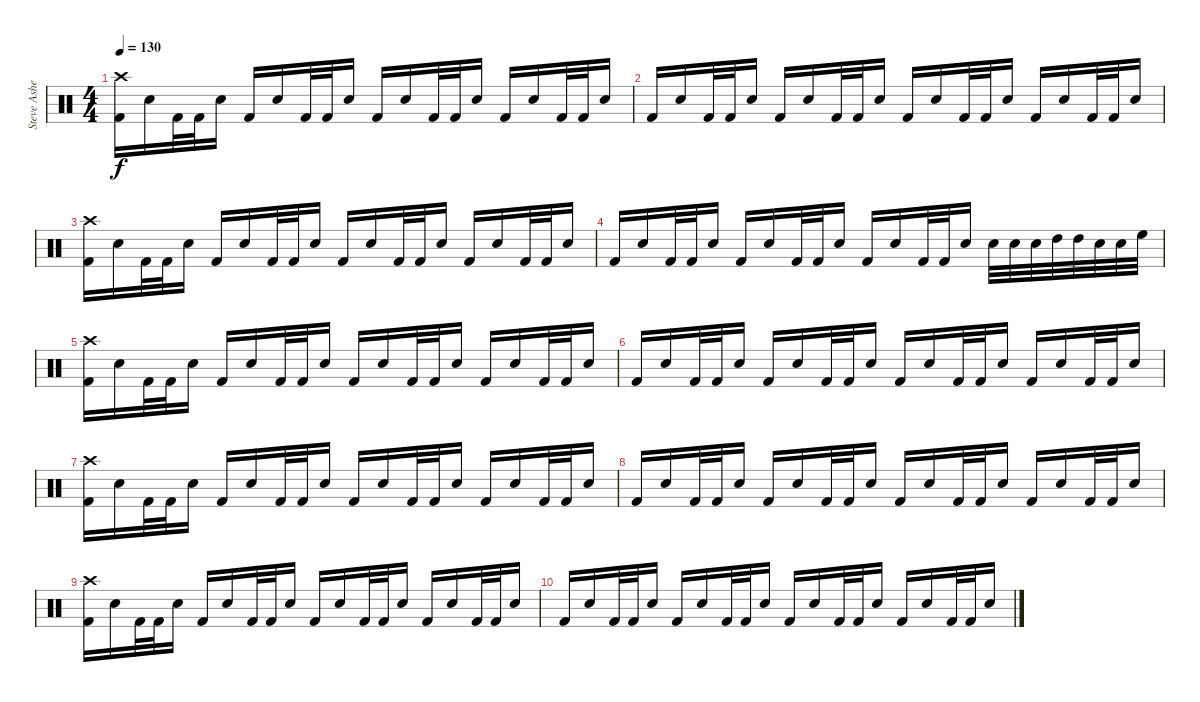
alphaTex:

\track ("Steve Asheim" "Steve Ashe") {instrument percussion}
\staff {score}
\articulation defaults
\ts (4 4)
\tempo 130
\clef neutral
\ks c
("Crash high (hit)" "Kick (hit) 2").16{dy f} "Electric Snare (hit)".16 "Kick (hit) 2".32 "Kick (hit) 2".32 "Electric Snare (hit)".16 "Kick (hit) 2".16 "Electric Snare (hit)".16 "Kick (hit) 2".32 "Kick (hit) 2".32 "Electric Snare (hit)".16 "Kick (hit) 2".16 "Electric Snare (hit)".16 "Kick (hit) 2".32 "Kick (hit) 2".32 "Electric Snare (hit)".16 "Kick (hit) 2".16 "Electric Snare (hit)".16 "Kick (hit) 2".32 "Kick (hit) 2".32 "Electric Snare (hit)".16 |
"Kick (hit) 2".16 "Electric Snare (hit)".16 "Kick (hit) 2".32 "Kick (hit) 2".32 "Electric Snare (hit)".16 "Kick (hit) 2".16 "Electric Snare (hit)".16 "Kick (hit) 2".32 "Kick (hit) 2".32 "Electric Snare (hit)".16 "Kick (hit) 2".16 "Electric Snare (hit)".16 "Kick (hit) 2".32 "Kick (hit) 2".32 "Electric Snare (hit)".16 "Kick (hit) 2".16 "Electric Snare (hit)".16 "Kick (hit) 2".32 "Kick (hit) 2".32 "Electric Snare (hit)".16 |
("Crash high (hit)" "Kick (hit) 2").16 "Electric Snare (hit)".16 "Kick (hit) 2".32 "Kick (hit) 2".32 "Electric Snare (hit)".16 "Kick (hit) 2".16 "Electric Snare (hit)".16 "Kick (hit) 2".32 "Kick (hit) 2".32 "Electric Snare (hit)".16 "Kick (hit) 2".16 "Electric Snare (hit)".16 "Kick (hit) 2".32 "Kick (hit) 2".32 "Electric Snare (hit)".16 "Kick (hit) 2".16 "Electric Snare (hit)".16 "Kick (hit) 2".32 "Kick (hit) 2".32 "Electric Snare (hit)".16 |
"Kick (hit) 2".16 "Electric Snare (hit)".16 "Kick (hit) 2".32 "Kick (hit) 2".32 "Electric Snare (hit)".16 "Kick (hit) 2".16 "Electric Snare (hit)".16 "Kick (hit) 2".32 "Kick (hit) 2".32 "Electric Snare (hit)".16 "Kick (hit) 2".16 "Electric Snare (hit)".16 "Kick (hit) 2".32 "Kick (hit) 2".32 "Electric Snare (hit)".16 "Electric Snare (hit)".32 "Electric Snare (hit)".32 "Electric Snare (hit)".32 "High Tom (hit)".32 "High Tom (hit)".32 "Electric Snare (hit)".32 "Electric Snare (hit)".32 "High Floor Tom (hit)".32 |
("Crash high (hit)" "Kick (hit) 2").16 "Electric Snare (hit)".16 "Kick (hit) 2".32 "Kick (hit) 2".32 "Electric Snare (hit)".16 "Kick (hit) 2".16 "Electric Snare (hit)".16 "Kick (hit) 2".32 "Kick (hit) 2".32 "Electric Snare (hit)".16 "Kick (hit) 2".16 "Electric Snare (hit)".16 "Kick (hit) 2".32 "Kick (hit) 2".32 "Electric Snare (hit)".16 "Kick (hit) 2".16 "Electric Snare (hit)".16 "Kick (hit) 2".32 "Kick (hit) 2".32 "Electric Snare (hit)".16 |
"Kick (hit) 2".16 "Electric Snare (hit)".16 "Kick (hit) 2".32 "Kick (hit) 2".32 "Electric Snare (hit)".16 "Kick (hit) 2".16 "Electric Snare (hit)".16 "Kick (hit) 2".32 "Kick (hit) 2".32 "Electric Snare (hit)".16 "Kick (hit) 2".16 "Electric Snare (hit)".16 "Kick (hit) 2".32 "Kick (hit) 2".32 "Electric Snare (hit)".16 "Kick (hit) 2".16 "Electric Snare (hit)".16 "Kick (hit) 2".32 "Kick (hit) 2".32 "Electric Snare (hit)".16 |
("Crash high (hit)" "Kick (hit) 2").16 "Electric Snare (hit)".16 "Kick (hit) 2".32 "Kick (hit) 2".32 "Electric Snare (hit)".16 "Kick (hit) 2".16 "Electric Snare (hit)".16 "Kick (hit) 2".32 "Kick (hit) 2".32 "Electric Snare (hit)".16 "Kick (hit) 2".16 "Electric Snare (hit)".16 "Kick (hit) 2".32 "Kick (hit) 2".32 "Electric Snare (hit)".16 "Kick (hit) 2".16 "Electric Snare (hit)".16 "Kick (hit) 2".32 "Kick (hit) 2".32 "Electric Snare (hit)".16 |
"Kick (hit) 2".16 "Electric Snare (hit)".16 "Kick (hit) 2".32 "Kick (hit) 2".32 "Electric Snare (hit)".16 "Kick (hit) 2".16 "Electric Snare (hit)".16 "Kick (hit) 2".32 "Kick (hit) 2".32 "Electric Snare (hit)".16 "Kick (hit) 2".16 "Electric Snare (hit)".16 "Kick (hit) 2".32 "Kick (hit) 2".32 "Electric Snare (hit)".16 "Kick (hit) 2".16 "Electric Snare (hit)".16 "Kick (hit) 2".32 "Kick (hit) 2".32 "Electric Snare (hit)".16 |
("Crash high (hit)" "Kick (hit) 2").16 "Electric Snare (hit)".16 "Kick (hit) 2".32 "Kick (hit) 2".32 "Electric Snare (hit)".16 "Kick (hit) 2".16 "Electric Snare (hit)".16 "Kick (hit) 2".32 "Kick (hit) 2".32 "Electric Snare (hit)".16 "Kick (hit) 2".16 "Electric Snare (hit)".16 "Kick (hit) 2".32 "Kick (hit) 2".32 "Electric Snare (hit)".16 "Kick (hit) 2".16 "Electric Snare (hit)".16 "Kick (hit) 2".32 "Kick (hit) 2".32 "Electric Snare (hit)".16 |
"Kick (hit) 2".16 "Electric Snare (hit)".16 "Kick (hit) 2".32 "Kick (hit) 2".32 "Electric Snare (hit)".16 "Kick (hit) 2".16 "Electric Snare (hit)".16 "Kick (hit) 2".32 "Kick (hit) 2".32 "Electric Snare (hit)".16 "Kick (hit) 2".16 "Electric Snare (hit)".16 "Kick (hit) 2".32 "Kick (hit) 2".32 "Electric Snare (hit)".16 "Kick (hit) 2".16 "Electric Snare (hit)".16 "Kick (hit) 2".32 "Kick (hit) 2".32 "Electric Snare (hit)".16
